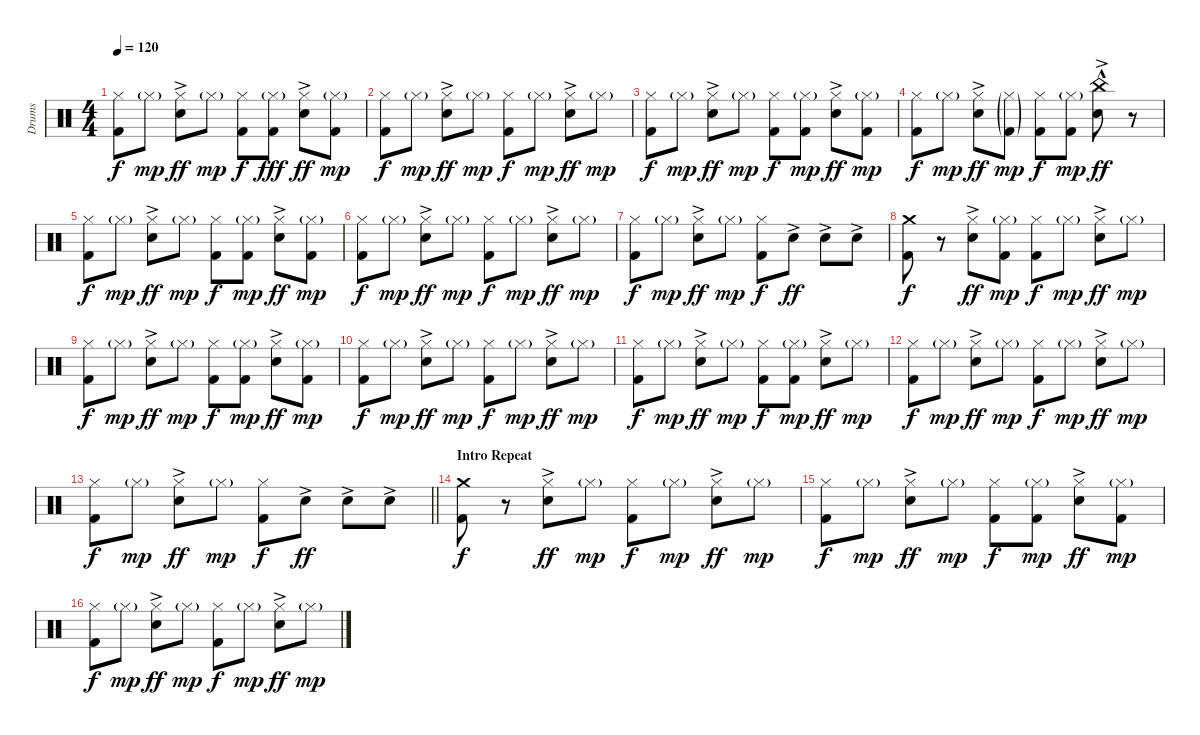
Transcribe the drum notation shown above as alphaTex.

\track ("Drums" "Drums") {instrument percussion}
\staff {score}
\articulation defaults
\ts (4 4)
\tempo 120
\clef neutral
\ks c
("Hi-Hat (closed)" "Kick (hit) 2").8{dy f} "Hi-Hat (closed)"{g}.8{dy mp} ("Hi-Hat (closed)" "Snare (hit) 2"{ac}).8{dy ff} "Hi-Hat (closed)"{g}.8{dy mp} ("Hi-Hat (closed)" "Kick (hit) 2").8{dy f} ("Hi-Hat (closed)"{g} "Kick (hit) 2").8{dy fff} ("Hi-Hat (closed)" "Snare (hit) 2"{ac}).8{dy ff} ("Hi-Hat (closed)"{g} "Kick (hit) 2").8{dy mp} |
("Hi-Hat (closed)" "Kick (hit) 2").8{dy f} "Hi-Hat (closed)"{g}.8{dy mp} ("Hi-Hat (closed)" "Snare (hit) 2"{ac}).8{dy ff} "Hi-Hat (closed)"{g}.8{dy mp} ("Hi-Hat (closed)" "Kick (hit) 2").8{dy f} "Hi-Hat (closed)"{g}.8{dy mp} ("Hi-Hat (closed)" "Snare (hit) 2"{ac}).8{dy ff} "Hi-Hat (closed)"{g}.8{dy mp} |
("Hi-Hat (closed)" "Kick (hit) 2").8{dy f} "Hi-Hat (closed)"{g}.8{dy mp} ("Hi-Hat (closed)" "Snare (hit) 2"{ac}).8{dy ff} "Hi-Hat (closed)"{g}.8{dy mp} ("Hi-Hat (closed)" "Kick (hit) 2").8{dy f} ("Hi-Hat (closed)"{g} "Kick (hit) 2").8{dy mp} ("Hi-Hat (closed)" "Snare (hit) 2"{ac}).8{dy ff} ("Hi-Hat (closed)"{g} "Kick (hit) 2").8{dy mp} |
("Hi-Hat (closed)" "Kick (hit) 2").8{dy f} "Hi-Hat (closed)"{g}.8{dy mp} ("Hi-Hat (closed)" "Snare (hit) 2"{ac}).8{dy ff} ("Hi-Hat (closed)"{g} "Kick (hit) 2"{g}).8{dy mp} ("Hi-Hat (closed)" "Kick (hit) 2").8{dy f} ("Hi-Hat (closed)"{g} "Kick (hit) 2").8{dy mp} ("China (hit)"{hac} "Snare (hit) 2"{ac}).8{dy ff} r.8 |
("Hi-Hat (closed)" "Kick (hit) 2").8{dy f} "Hi-Hat (closed)"{g}.8{dy mp} ("Hi-Hat (closed)" "Snare (hit) 2"{ac}).8{dy ff} "Hi-Hat (closed)"{g}.8{dy mp} ("Hi-Hat (closed)" "Kick (hit) 2").8{dy f} ("Hi-Hat (closed)"{g} "Kick (hit) 2").8{dy mp} ("Hi-Hat (closed)" "Snare (hit) 2"{ac}).8{dy ff} ("Hi-Hat (closed)"{g} "Kick (hit) 2").8{dy mp} |
("Hi-Hat (closed)" "Kick (hit) 2").8{dy f} "Hi-Hat (closed)"{g}.8{dy mp} ("Hi-Hat (closed)" "Snare (hit) 2"{ac}).8{dy ff} "Hi-Hat (closed)"{g}.8{dy mp} ("Hi-Hat (closed)" "Kick (hit) 2").8{dy f} "Hi-Hat (closed)"{g}.8{dy mp} ("Hi-Hat (closed)" "Snare (hit) 2"{ac}).8{dy ff} "Hi-Hat (closed)"{g}.8{dy mp} |
("Hi-Hat (closed)" "Kick (hit) 2").8{dy f} "Hi-Hat (closed)"{g}.8{dy mp} ("Hi-Hat (closed)" "Snare (hit) 2"{ac}).8{dy ff} "Hi-Hat (closed)"{g}.8{dy mp} ("Hi-Hat (closed)" "Kick (hit) 2").8{dy f} "Snare (hit) 2"{ac}.8{dy ff} "Snare (hit) 2"{ac}.8 "Snare (hit) 2"{ac}.8 |
("Crash medium (hit)" "Kick (hit) 2").8{dy f} r.8 ("Hi-Hat (closed)" "Snare (hit) 2"{ac}).8{dy ff} ("Hi-Hat (closed)"{g} "Kick (hit) 2").8{dy mp} ("Hi-Hat (closed)" "Kick (hit) 2").8{dy f} "Hi-Hat (closed)"{g}.8{dy mp} ("Hi-Hat (closed)" "Snare (hit) 2"{ac}).8{dy ff} "Hi-Hat (closed)"{g}.8{dy mp} |
("Hi-Hat (closed)" "Kick (hit) 2").8{dy f} "Hi-Hat (closed)"{g}.8{dy mp} ("Hi-Hat (closed)" "Snare (hit) 2"{ac}).8{dy ff} "Hi-Hat (closed)"{g}.8{dy mp} ("Hi-Hat (closed)" "Kick (hit) 2").8{dy f} ("Hi-Hat (closed)"{g} "Kick (hit) 2").8{dy mp} ("Hi-Hat (closed)" "Snare (hit) 2"{ac}).8{dy ff} ("Hi-Hat (closed)"{g} "Kick (hit) 2").8{dy mp} |
("Hi-Hat (closed)" "Kick (hit) 2").8{dy f} "Hi-Hat (closed)"{g}.8{dy mp} ("Hi-Hat (closed)" "Snare (hit) 2"{ac}).8{dy ff} "Hi-Hat (closed)"{g}.8{dy mp} ("Hi-Hat (closed)" "Kick (hit) 2").8{dy f} "Hi-Hat (closed)"{g}.8{dy mp} ("Hi-Hat (closed)" "Snare (hit) 2"{ac}).8{dy ff} "Hi-Hat (closed)"{g}.8{dy mp} |
("Hi-Hat (closed)" "Kick (hit) 2").8{dy f} "Hi-Hat (closed)"{g}.8{dy mp} ("Hi-Hat (closed)" "Snare (hit) 2"{ac}).8{dy ff} "Hi-Hat (closed)"{g}.8{dy mp} ("Hi-Hat (closed)" "Kick (hit) 2").8{dy f} ("Hi-Hat (closed)"{g} "Kick (hit) 2").8{dy mp} ("Hi-Hat (closed)" "Snare (hit) 2"{ac}).8{dy ff} "Hi-Hat (closed)"{g}.8{dy mp} |
("Hi-Hat (closed)" "Kick (hit) 2").8{dy f} "Hi-Hat (closed)"{g}.8{dy mp} ("Hi-Hat (closed)" "Snare (hit) 2"{ac}).8{dy ff} "Hi-Hat (closed)"{g}.8{dy mp} ("Hi-Hat (closed)" "Kick (hit) 2").8{dy f} "Hi-Hat (closed)"{g}.8{dy mp} ("Hi-Hat (closed)" "Snare (hit) 2"{ac}).8{dy ff} "Hi-Hat (closed)"{g}.8{dy mp} |
\barLineRight lightlight
("Hi-Hat (closed)" "Kick (hit) 2").8{dy f} "Hi-Hat (closed)"{g}.8{dy mp} ("Hi-Hat (closed)" "Snare (hit) 2"{ac}).8{dy ff} "Hi-Hat (closed)"{g}.8{dy mp} ("Hi-Hat (closed)" "Kick (hit) 2").8{dy f} "Snare (hit) 2"{ac}.8{dy ff} "Snare (hit) 2"{ac}.8 "Snare (hit) 2"{ac}.8 |
\section ("" "Intro Repeat")
("Crash medium (hit)" "Kick (hit) 2").8{dy f} r.8 ("Hi-Hat (closed)" "Snare (hit) 2"{ac}).8{dy ff} "Hi-Hat (closed)"{g}.8{dy mp} ("Hi-Hat (closed)" "Kick (hit) 2").8{dy f} "Hi-Hat (closed)"{g}.8{dy mp} ("Hi-Hat (closed)" "Snare (hit) 2"{ac}).8{dy ff} "Hi-Hat (closed)"{g}.8{dy mp} |
("Hi-Hat (closed)" "Kick (hit) 2").8{dy f} "Hi-Hat (closed)"{g}.8{dy mp} ("Hi-Hat (closed)" "Snare (hit) 2"{ac}).8{dy ff} "Hi-Hat (closed)"{g}.8{dy mp} ("Hi-Hat (closed)" "Kick (hit) 2").8{dy f} ("Hi-Hat (closed)"{g} "Kick (hit) 2").8{dy mp} ("Hi-Hat (closed)" "Snare (hit) 2"{ac}).8{dy ff} ("Hi-Hat (closed)"{g} "Kick (hit) 2").8{dy mp} |
("Hi-Hat (closed)" "Kick (hit) 2").8{dy f} "Hi-Hat (closed)"{g}.8{dy mp} ("Hi-Hat (closed)" "Snare (hit) 2"{ac}).8{dy ff} "Hi-Hat (closed)"{g}.8{dy mp} ("Hi-Hat (closed)" "Kick (hit) 2").8{dy f} "Hi-Hat (closed)"{g}.8{dy mp} ("Hi-Hat (closed)" "Snare (hit) 2"{ac}).8{dy ff} "Hi-Hat (closed)"{g}.8{dy mp}
